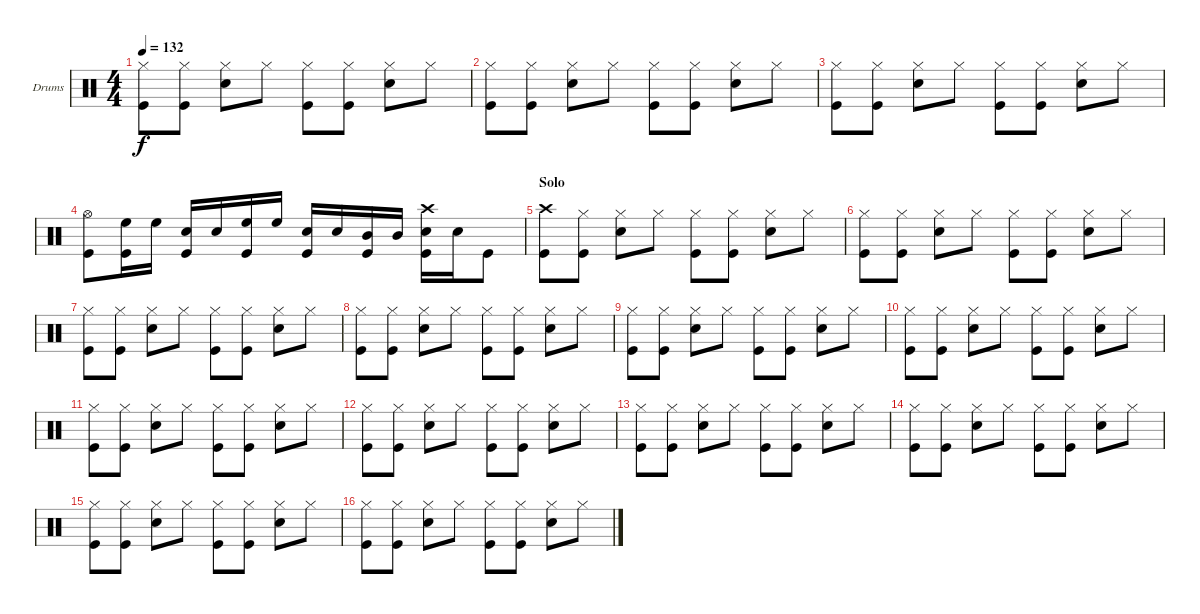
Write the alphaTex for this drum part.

\bracketExtendMode groupsimilarinstruments
\firstSystemTrackNameOrientation horizontal
\otherSystemsTrackNameOrientation horizontal
\track ("Drumkit" "Drums") {instrument percussion}
\staff {score}
\articulation defaults
\ts (4 4)
\tempo 132
\clef neutral
\ks c
("Kick (hit)" "Hi-Hat (closed)").8{dy f} ("Kick (hit)" "Hi-Hat (closed)").8 ("Snare (hit) 2" "Hi-Hat (closed)").8 "Hi-Hat (closed)".8 ("Kick (hit)" "Hi-Hat (closed)").8 ("Kick (hit)" "Hi-Hat (closed)").8 ("Snare (hit) 2" "Hi-Hat (closed)").8 "Hi-Hat (closed)".8 |
("Kick (hit)" "Hi-Hat (closed)").8 ("Kick (hit)" "Hi-Hat (closed)").8 ("Snare (hit) 2" "Hi-Hat (closed)").8 "Hi-Hat (closed)".8 ("Kick (hit)" "Hi-Hat (closed)").8 ("Kick (hit)" "Hi-Hat (closed)").8 ("Snare (hit) 2" "Hi-Hat (closed)").8 "Hi-Hat (closed)".8 |
("Kick (hit)" "Hi-Hat (closed)").8 ("Kick (hit)" "Hi-Hat (closed)").8 ("Snare (hit) 2" "Hi-Hat (closed)").8 "Hi-Hat (closed)".8 ("Kick (hit)" "Hi-Hat (closed)").8 ("Kick (hit)" "Hi-Hat (closed)").8 ("Snare (hit) 2" "Hi-Hat (closed)").8 "Hi-Hat (closed)".8 |
("Kick (hit)" "Hi-Hat (open)").8 ("Kick (hit)" "High Floor Tom (hit)").16 "High Floor Tom (hit)".16 ("Kick (hit)" "Snare (hit) 2").16 "Snare (hit) 2".16 ("Kick (hit)" "High Floor Tom (hit)").16 "High Floor Tom (hit)".16 ("Kick (hit)" "Snare (hit) 2").16 "Snare (hit) 2".16 ("Kick (hit)" "Mid Tom (hit)").16 "Mid Tom (hit)".16 ("Kick (hit)" "Snare (hit) 2" "Crash high (hit)").16 "Snare (hit) 2".16 "Kick (hit)".8 |
\section ("" "Solo")
("Kick (hit)" "Crash high (hit)").8 ("Kick (hit)" "Hi-Hat (closed)").8 ("Snare (hit) 2" "Hi-Hat (closed)").8 "Hi-Hat (closed)".8 ("Kick (hit)" "Hi-Hat (closed)").8 ("Kick (hit)" "Hi-Hat (closed)").8 ("Snare (hit) 2" "Hi-Hat (closed)").8 "Hi-Hat (closed)".8 |
("Kick (hit)" "Hi-Hat (closed)").8 ("Kick (hit)" "Hi-Hat (closed)").8 ("Snare (hit) 2" "Hi-Hat (closed)").8 "Hi-Hat (closed)".8 ("Kick (hit)" "Hi-Hat (closed)").8 ("Kick (hit)" "Hi-Hat (closed)").8 ("Snare (hit) 2" "Hi-Hat (closed)").8 "Hi-Hat (closed)".8 |
("Kick (hit)" "Hi-Hat (closed)").8 ("Kick (hit)" "Hi-Hat (closed)").8 ("Snare (hit) 2" "Hi-Hat (closed)").8 "Hi-Hat (closed)".8 ("Kick (hit)" "Hi-Hat (closed)").8 ("Kick (hit)" "Hi-Hat (closed)").8 ("Snare (hit) 2" "Hi-Hat (closed)").8 "Hi-Hat (closed)".8 |
("Kick (hit)" "Hi-Hat (closed)").8 ("Kick (hit)" "Hi-Hat (closed)").8 ("Snare (hit) 2" "Hi-Hat (closed)").8 "Hi-Hat (closed)".8 ("Kick (hit)" "Hi-Hat (closed)").8 ("Kick (hit)" "Hi-Hat (closed)").8 ("Snare (hit) 2" "Hi-Hat (closed)").8 "Hi-Hat (closed)".8 |
("Kick (hit)" "Hi-Hat (closed)").8 ("Kick (hit)" "Hi-Hat (closed)").8 ("Snare (hit) 2" "Hi-Hat (closed)").8 "Hi-Hat (closed)".8 ("Kick (hit)" "Hi-Hat (closed)").8 ("Kick (hit)" "Hi-Hat (closed)").8 ("Snare (hit) 2" "Hi-Hat (closed)").8 "Hi-Hat (closed)".8 |
("Kick (hit)" "Hi-Hat (closed)").8 ("Kick (hit)" "Hi-Hat (closed)").8 ("Snare (hit) 2" "Hi-Hat (closed)").8 "Hi-Hat (closed)".8 ("Kick (hit)" "Hi-Hat (closed)").8 ("Kick (hit)" "Hi-Hat (closed)").8 ("Snare (hit) 2" "Hi-Hat (closed)").8 "Hi-Hat (closed)".8 |
("Kick (hit)" "Hi-Hat (closed)").8 ("Kick (hit)" "Hi-Hat (closed)").8 ("Snare (hit) 2" "Hi-Hat (closed)").8 "Hi-Hat (closed)".8 ("Kick (hit)" "Hi-Hat (closed)").8 ("Kick (hit)" "Hi-Hat (closed)").8 ("Snare (hit) 2" "Hi-Hat (closed)").8 "Hi-Hat (closed)".8 |
("Kick (hit)" "Hi-Hat (closed)").8 ("Kick (hit)" "Hi-Hat (closed)").8 ("Snare (hit) 2" "Hi-Hat (closed)").8 "Hi-Hat (closed)".8 ("Kick (hit)" "Hi-Hat (closed)").8 ("Kick (hit)" "Hi-Hat (closed)").8 ("Snare (hit) 2" "Hi-Hat (closed)").8 "Hi-Hat (closed)".8 |
("Kick (hit)" "Hi-Hat (closed)").8 ("Kick (hit)" "Hi-Hat (closed)").8 ("Snare (hit) 2" "Hi-Hat (closed)").8 "Hi-Hat (closed)".8 ("Kick (hit)" "Hi-Hat (closed)").8 ("Kick (hit)" "Hi-Hat (closed)").8 ("Snare (hit) 2" "Hi-Hat (closed)").8 "Hi-Hat (closed)".8 |
("Kick (hit)" "Hi-Hat (closed)").8 ("Kick (hit)" "Hi-Hat (closed)").8 ("Snare (hit) 2" "Hi-Hat (closed)").8 "Hi-Hat (closed)".8 ("Kick (hit)" "Hi-Hat (closed)").8 ("Kick (hit)" "Hi-Hat (closed)").8 ("Snare (hit) 2" "Hi-Hat (closed)").8 "Hi-Hat (closed)".8 |
("Kick (hit)" "Hi-Hat (closed)").8 ("Kick (hit)" "Hi-Hat (closed)").8 ("Snare (hit) 2" "Hi-Hat (closed)").8 "Hi-Hat (closed)".8 ("Kick (hit)" "Hi-Hat (closed)").8 ("Kick (hit)" "Hi-Hat (closed)").8 ("Snare (hit) 2" "Hi-Hat (closed)").8 "Hi-Hat (closed)".8 |
("Kick (hit)" "Hi-Hat (closed)").8 ("Kick (hit)" "Hi-Hat (closed)").8 ("Snare (hit) 2" "Hi-Hat (closed)").8 "Hi-Hat (closed)".8 ("Kick (hit)" "Hi-Hat (closed)").8 ("Kick (hit)" "Hi-Hat (closed)").8 ("Snare (hit) 2" "Hi-Hat (closed)").8 "Hi-Hat (closed)".8
